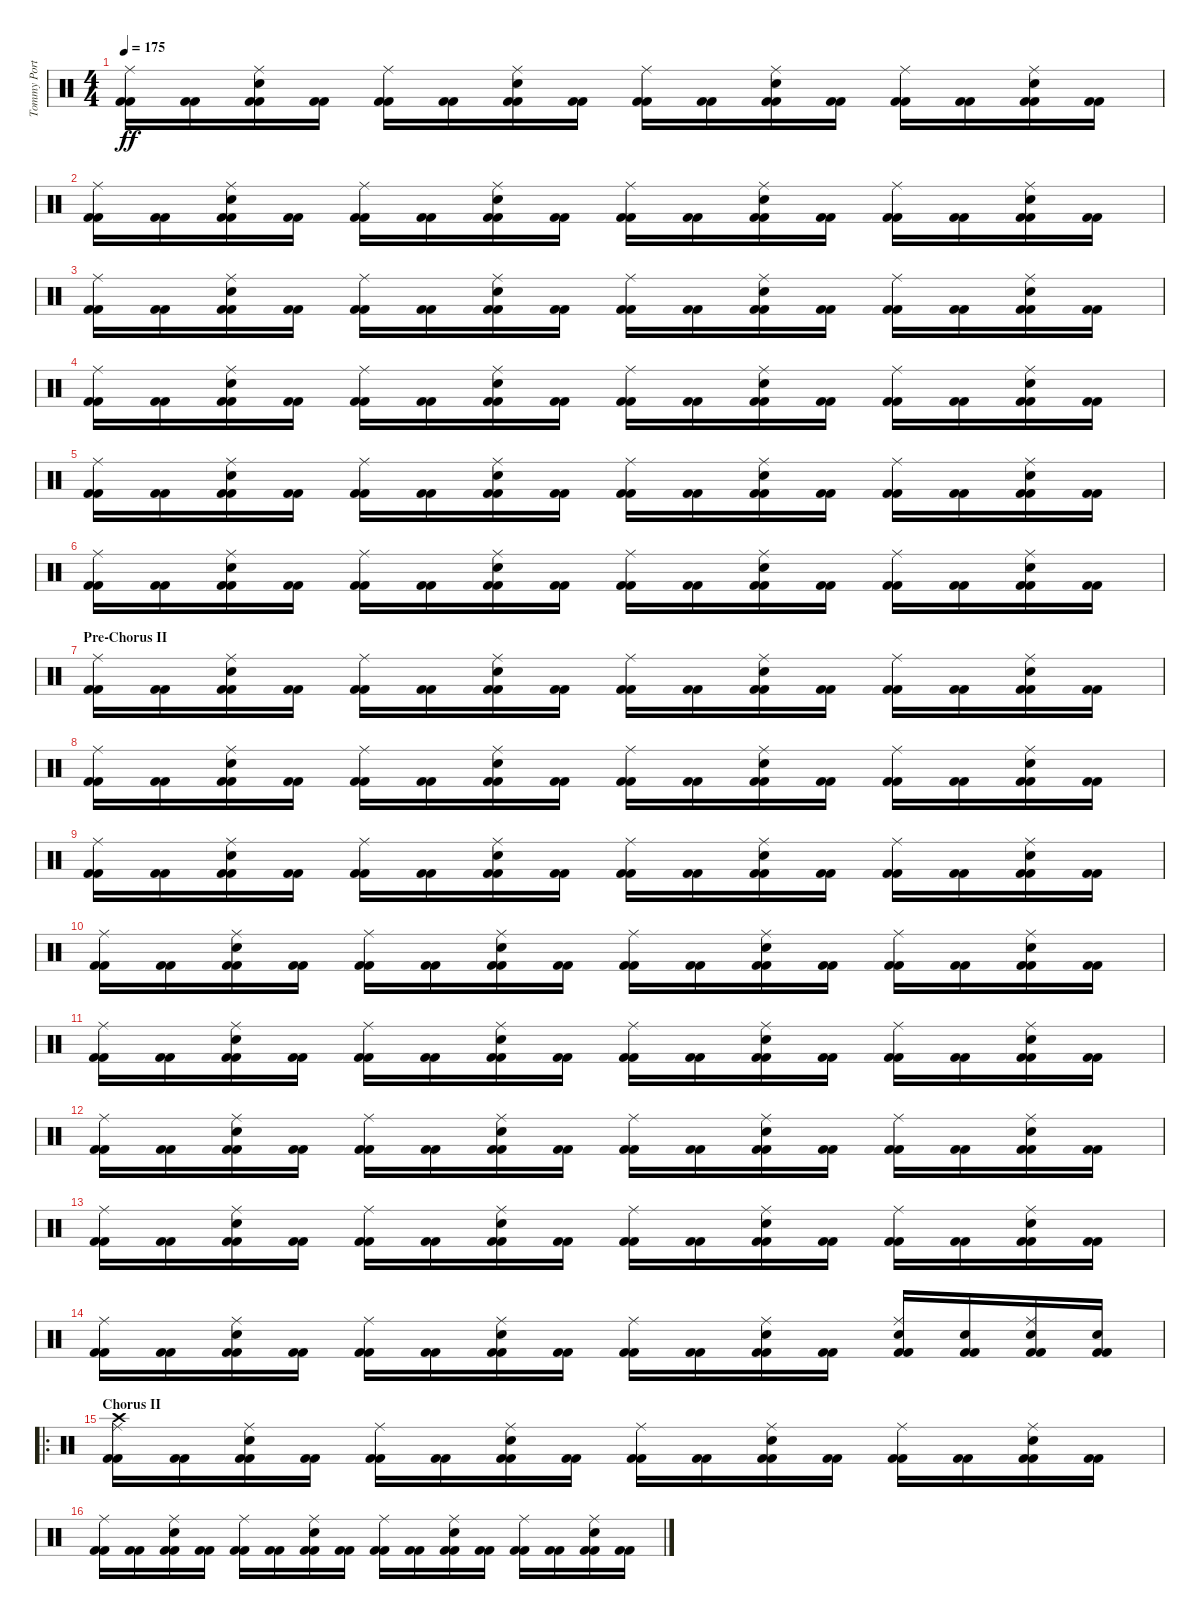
\track ("Tommy Portimo" "Tommy Port") {instrument percussion}
\staff {score}
\articulation defaults
\ts (4 4)
\tempo 175
\clef neutral
\ks c
("Kick (hit) 2" "Kick (hit) 2" "Ride (middle)").16{dy ff} ("Kick (hit) 2" "Kick (hit) 2").16 ("Kick (hit) 2" "Kick (hit) 2" "Ride (middle)" "Electric Snare (hit)").16 ("Kick (hit) 2" "Kick (hit) 2").16 ("Kick (hit) 2" "Kick (hit) 2" "Ride (middle)").16 ("Kick (hit) 2" "Kick (hit) 2").16 ("Kick (hit) 2" "Kick (hit) 2" "Ride (middle)" "Electric Snare (hit)").16 ("Kick (hit) 2" "Kick (hit) 2").16 ("Kick (hit) 2" "Kick (hit) 2" "Ride (middle)").16 ("Kick (hit) 2" "Kick (hit) 2").16 ("Kick (hit) 2" "Kick (hit) 2" "Ride (middle)" "Electric Snare (hit)").16 ("Kick (hit) 2" "Kick (hit) 2").16 ("Kick (hit) 2" "Kick (hit) 2" "Ride (middle)").16 ("Kick (hit) 2" "Kick (hit) 2").16 ("Kick (hit) 2" "Kick (hit) 2" "Ride (middle)" "Electric Snare (hit)").16 ("Kick (hit) 2" "Kick (hit) 2").16 |
("Kick (hit) 2" "Kick (hit) 2" "Ride (middle)").16 ("Kick (hit) 2" "Kick (hit) 2").16 ("Kick (hit) 2" "Kick (hit) 2" "Ride (middle)" "Electric Snare (hit)").16 ("Kick (hit) 2" "Kick (hit) 2").16 ("Kick (hit) 2" "Kick (hit) 2" "Ride (middle)").16 ("Kick (hit) 2" "Kick (hit) 2").16 ("Kick (hit) 2" "Kick (hit) 2" "Ride (middle)" "Electric Snare (hit)").16 ("Kick (hit) 2" "Kick (hit) 2").16 ("Kick (hit) 2" "Kick (hit) 2" "Ride (middle)").16 ("Kick (hit) 2" "Kick (hit) 2").16 ("Kick (hit) 2" "Kick (hit) 2" "Ride (middle)" "Electric Snare (hit)").16 ("Kick (hit) 2" "Kick (hit) 2").16 ("Kick (hit) 2" "Kick (hit) 2" "Ride (middle)").16 ("Kick (hit) 2" "Kick (hit) 2").16 ("Kick (hit) 2" "Kick (hit) 2" "Ride (middle)" "Electric Snare (hit)").16 ("Kick (hit) 2" "Kick (hit) 2").16 |
("Kick (hit) 2" "Kick (hit) 2" "Ride (middle)").16 ("Kick (hit) 2" "Kick (hit) 2").16 ("Kick (hit) 2" "Kick (hit) 2" "Ride (middle)" "Electric Snare (hit)").16 ("Kick (hit) 2" "Kick (hit) 2").16 ("Kick (hit) 2" "Kick (hit) 2" "Ride (middle)").16 ("Kick (hit) 2" "Kick (hit) 2").16 ("Kick (hit) 2" "Kick (hit) 2" "Ride (middle)" "Electric Snare (hit)").16 ("Kick (hit) 2" "Kick (hit) 2").16 ("Kick (hit) 2" "Kick (hit) 2" "Ride (middle)").16 ("Kick (hit) 2" "Kick (hit) 2").16 ("Kick (hit) 2" "Kick (hit) 2" "Ride (middle)" "Electric Snare (hit)").16 ("Kick (hit) 2" "Kick (hit) 2").16 ("Kick (hit) 2" "Kick (hit) 2" "Ride (middle)").16 ("Kick (hit) 2" "Kick (hit) 2").16 ("Kick (hit) 2" "Kick (hit) 2" "Ride (middle)" "Electric Snare (hit)").16 ("Kick (hit) 2" "Kick (hit) 2").16 |
("Kick (hit) 2" "Kick (hit) 2" "Ride (middle)").16 ("Kick (hit) 2" "Kick (hit) 2").16 ("Kick (hit) 2" "Kick (hit) 2" "Ride (middle)" "Electric Snare (hit)").16 ("Kick (hit) 2" "Kick (hit) 2").16 ("Kick (hit) 2" "Kick (hit) 2" "Ride (middle)").16 ("Kick (hit) 2" "Kick (hit) 2").16 ("Kick (hit) 2" "Kick (hit) 2" "Ride (middle)" "Electric Snare (hit)").16 ("Kick (hit) 2" "Kick (hit) 2").16 ("Kick (hit) 2" "Kick (hit) 2" "Ride (middle)").16 ("Kick (hit) 2" "Kick (hit) 2").16 ("Kick (hit) 2" "Kick (hit) 2" "Ride (middle)" "Electric Snare (hit)").16 ("Kick (hit) 2" "Kick (hit) 2").16 ("Kick (hit) 2" "Kick (hit) 2" "Ride (middle)").16 ("Kick (hit) 2" "Kick (hit) 2").16 ("Kick (hit) 2" "Kick (hit) 2" "Ride (middle)" "Electric Snare (hit)").16 ("Kick (hit) 2" "Kick (hit) 2").16 |
("Kick (hit) 2" "Kick (hit) 2" "Ride (middle)").16 ("Kick (hit) 2" "Kick (hit) 2").16 ("Kick (hit) 2" "Kick (hit) 2" "Ride (middle)" "Electric Snare (hit)").16 ("Kick (hit) 2" "Kick (hit) 2").16 ("Kick (hit) 2" "Kick (hit) 2" "Ride (middle)").16 ("Kick (hit) 2" "Kick (hit) 2").16 ("Kick (hit) 2" "Kick (hit) 2" "Ride (middle)" "Electric Snare (hit)").16 ("Kick (hit) 2" "Kick (hit) 2").16 ("Kick (hit) 2" "Kick (hit) 2" "Ride (middle)").16 ("Kick (hit) 2" "Kick (hit) 2").16 ("Kick (hit) 2" "Kick (hit) 2" "Ride (middle)" "Electric Snare (hit)").16 ("Kick (hit) 2" "Kick (hit) 2").16 ("Kick (hit) 2" "Kick (hit) 2" "Ride (middle)").16 ("Kick (hit) 2" "Kick (hit) 2").16 ("Kick (hit) 2" "Kick (hit) 2" "Ride (middle)" "Electric Snare (hit)").16 ("Kick (hit) 2" "Kick (hit) 2").16 |
("Kick (hit) 2" "Kick (hit) 2" "Ride (middle)").16 ("Kick (hit) 2" "Kick (hit) 2").16 ("Kick (hit) 2" "Kick (hit) 2" "Ride (middle)" "Electric Snare (hit)").16 ("Kick (hit) 2" "Kick (hit) 2").16 ("Kick (hit) 2" "Kick (hit) 2" "Ride (middle)").16 ("Kick (hit) 2" "Kick (hit) 2").16 ("Kick (hit) 2" "Kick (hit) 2" "Ride (middle)" "Electric Snare (hit)").16 ("Kick (hit) 2" "Kick (hit) 2").16 ("Kick (hit) 2" "Kick (hit) 2" "Ride (middle)").16 ("Kick (hit) 2" "Kick (hit) 2").16 ("Kick (hit) 2" "Kick (hit) 2" "Ride (middle)" "Electric Snare (hit)").16 ("Kick (hit) 2" "Kick (hit) 2").16 ("Kick (hit) 2" "Kick (hit) 2" "Ride (middle)").16 ("Kick (hit) 2" "Kick (hit) 2").16 ("Kick (hit) 2" "Kick (hit) 2" "Ride (middle)" "Electric Snare (hit)").16 ("Kick (hit) 2" "Kick (hit) 2").16 |
\section ("" "Pre-Chorus II")
("Kick (hit) 2" "Kick (hit) 2" "Ride (middle)").16 ("Kick (hit) 2" "Kick (hit) 2").16 ("Kick (hit) 2" "Kick (hit) 2" "Ride (middle)" "Electric Snare (hit)").16 ("Kick (hit) 2" "Kick (hit) 2").16 ("Kick (hit) 2" "Kick (hit) 2" "Ride (middle)").16 ("Kick (hit) 2" "Kick (hit) 2").16 ("Kick (hit) 2" "Kick (hit) 2" "Ride (middle)" "Electric Snare (hit)").16 ("Kick (hit) 2" "Kick (hit) 2").16 ("Kick (hit) 2" "Kick (hit) 2" "Ride (middle)").16 ("Kick (hit) 2" "Kick (hit) 2").16 ("Kick (hit) 2" "Kick (hit) 2" "Ride (middle)" "Electric Snare (hit)").16 ("Kick (hit) 2" "Kick (hit) 2").16 ("Kick (hit) 2" "Kick (hit) 2" "Ride (middle)").16 ("Kick (hit) 2" "Kick (hit) 2").16 ("Kick (hit) 2" "Kick (hit) 2" "Ride (middle)" "Electric Snare (hit)").16 ("Kick (hit) 2" "Kick (hit) 2").16 |
("Kick (hit) 2" "Kick (hit) 2" "Ride (middle)").16 ("Kick (hit) 2" "Kick (hit) 2").16 ("Kick (hit) 2" "Kick (hit) 2" "Ride (middle)" "Electric Snare (hit)").16 ("Kick (hit) 2" "Kick (hit) 2").16 ("Kick (hit) 2" "Kick (hit) 2" "Ride (middle)").16 ("Kick (hit) 2" "Kick (hit) 2").16 ("Kick (hit) 2" "Kick (hit) 2" "Ride (middle)" "Electric Snare (hit)").16 ("Kick (hit) 2" "Kick (hit) 2").16 ("Kick (hit) 2" "Kick (hit) 2" "Ride (middle)").16 ("Kick (hit) 2" "Kick (hit) 2").16 ("Kick (hit) 2" "Kick (hit) 2" "Ride (middle)" "Electric Snare (hit)").16 ("Kick (hit) 2" "Kick (hit) 2").16 ("Kick (hit) 2" "Kick (hit) 2" "Ride (middle)").16 ("Kick (hit) 2" "Kick (hit) 2").16 ("Kick (hit) 2" "Kick (hit) 2" "Ride (middle)" "Electric Snare (hit)").16 ("Kick (hit) 2" "Kick (hit) 2").16 |
("Kick (hit) 2" "Kick (hit) 2" "Ride (middle)").16 ("Kick (hit) 2" "Kick (hit) 2").16 ("Kick (hit) 2" "Kick (hit) 2" "Ride (middle)" "Electric Snare (hit)").16 ("Kick (hit) 2" "Kick (hit) 2").16 ("Kick (hit) 2" "Kick (hit) 2" "Ride (middle)").16 ("Kick (hit) 2" "Kick (hit) 2").16 ("Kick (hit) 2" "Kick (hit) 2" "Ride (middle)" "Electric Snare (hit)").16 ("Kick (hit) 2" "Kick (hit) 2").16 ("Kick (hit) 2" "Kick (hit) 2" "Ride (middle)").16 ("Kick (hit) 2" "Kick (hit) 2").16 ("Kick (hit) 2" "Kick (hit) 2" "Ride (middle)" "Electric Snare (hit)").16 ("Kick (hit) 2" "Kick (hit) 2").16 ("Kick (hit) 2" "Kick (hit) 2" "Ride (middle)").16 ("Kick (hit) 2" "Kick (hit) 2").16 ("Kick (hit) 2" "Kick (hit) 2" "Ride (middle)" "Electric Snare (hit)").16 ("Kick (hit) 2" "Kick (hit) 2").16 |
("Kick (hit) 2" "Kick (hit) 2" "Ride (middle)").16 ("Kick (hit) 2" "Kick (hit) 2").16 ("Kick (hit) 2" "Kick (hit) 2" "Ride (middle)" "Electric Snare (hit)").16 ("Kick (hit) 2" "Kick (hit) 2").16 ("Kick (hit) 2" "Kick (hit) 2" "Ride (middle)").16 ("Kick (hit) 2" "Kick (hit) 2").16 ("Kick (hit) 2" "Kick (hit) 2" "Ride (middle)" "Electric Snare (hit)").16 ("Kick (hit) 2" "Kick (hit) 2").16 ("Kick (hit) 2" "Kick (hit) 2" "Ride (middle)").16 ("Kick (hit) 2" "Kick (hit) 2").16 ("Kick (hit) 2" "Kick (hit) 2" "Ride (middle)" "Electric Snare (hit)").16 ("Kick (hit) 2" "Kick (hit) 2").16 ("Kick (hit) 2" "Kick (hit) 2" "Ride (middle)").16 ("Kick (hit) 2" "Kick (hit) 2").16 ("Kick (hit) 2" "Kick (hit) 2" "Ride (middle)" "Electric Snare (hit)").16 ("Kick (hit) 2" "Kick (hit) 2").16 |
("Kick (hit) 2" "Kick (hit) 2" "Ride (middle)").16 ("Kick (hit) 2" "Kick (hit) 2").16 ("Kick (hit) 2" "Kick (hit) 2" "Ride (middle)" "Electric Snare (hit)").16 ("Kick (hit) 2" "Kick (hit) 2").16 ("Kick (hit) 2" "Kick (hit) 2" "Ride (middle)").16 ("Kick (hit) 2" "Kick (hit) 2").16 ("Kick (hit) 2" "Kick (hit) 2" "Ride (middle)" "Electric Snare (hit)").16 ("Kick (hit) 2" "Kick (hit) 2").16 ("Kick (hit) 2" "Kick (hit) 2" "Ride (middle)").16 ("Kick (hit) 2" "Kick (hit) 2").16 ("Kick (hit) 2" "Kick (hit) 2" "Ride (middle)" "Electric Snare (hit)").16 ("Kick (hit) 2" "Kick (hit) 2").16 ("Kick (hit) 2" "Kick (hit) 2" "Ride (middle)").16 ("Kick (hit) 2" "Kick (hit) 2").16 ("Kick (hit) 2" "Kick (hit) 2" "Ride (middle)" "Electric Snare (hit)").16 ("Kick (hit) 2" "Kick (hit) 2").16 |
("Kick (hit) 2" "Kick (hit) 2" "Ride (middle)").16 ("Kick (hit) 2" "Kick (hit) 2").16 ("Kick (hit) 2" "Kick (hit) 2" "Ride (middle)" "Electric Snare (hit)").16 ("Kick (hit) 2" "Kick (hit) 2").16 ("Kick (hit) 2" "Kick (hit) 2" "Ride (middle)").16 ("Kick (hit) 2" "Kick (hit) 2").16 ("Kick (hit) 2" "Kick (hit) 2" "Ride (middle)" "Electric Snare (hit)").16 ("Kick (hit) 2" "Kick (hit) 2").16 ("Kick (hit) 2" "Kick (hit) 2" "Ride (middle)").16 ("Kick (hit) 2" "Kick (hit) 2").16 ("Kick (hit) 2" "Kick (hit) 2" "Ride (middle)" "Electric Snare (hit)").16 ("Kick (hit) 2" "Kick (hit) 2").16 ("Kick (hit) 2" "Kick (hit) 2" "Ride (middle)").16 ("Kick (hit) 2" "Kick (hit) 2").16 ("Kick (hit) 2" "Kick (hit) 2" "Ride (middle)" "Electric Snare (hit)").16 ("Kick (hit) 2" "Kick (hit) 2").16 |
("Kick (hit) 2" "Kick (hit) 2" "Ride (middle)").16 ("Kick (hit) 2" "Kick (hit) 2").16 ("Kick (hit) 2" "Kick (hit) 2" "Ride (middle)" "Electric Snare (hit)").16 ("Kick (hit) 2" "Kick (hit) 2").16 ("Kick (hit) 2" "Kick (hit) 2" "Ride (middle)").16 ("Kick (hit) 2" "Kick (hit) 2").16 ("Kick (hit) 2" "Kick (hit) 2" "Ride (middle)" "Electric Snare (hit)").16 ("Kick (hit) 2" "Kick (hit) 2").16 ("Kick (hit) 2" "Kick (hit) 2" "Ride (middle)").16 ("Kick (hit) 2" "Kick (hit) 2").16 ("Kick (hit) 2" "Kick (hit) 2" "Ride (middle)" "Electric Snare (hit)").16 ("Kick (hit) 2" "Kick (hit) 2").16 ("Kick (hit) 2" "Kick (hit) 2" "Ride (middle)").16 ("Kick (hit) 2" "Kick (hit) 2").16 ("Kick (hit) 2" "Kick (hit) 2" "Ride (middle)" "Electric Snare (hit)").16 ("Kick (hit) 2" "Kick (hit) 2").16 |
("Kick (hit) 2" "Kick (hit) 2" "Ride (middle)").16 ("Kick (hit) 2" "Kick (hit) 2").16 ("Kick (hit) 2" "Kick (hit) 2" "Ride (middle)" "Electric Snare (hit)").16 ("Kick (hit) 2" "Kick (hit) 2").16 ("Kick (hit) 2" "Kick (hit) 2" "Ride (middle)").16 ("Kick (hit) 2" "Kick (hit) 2").16 ("Kick (hit) 2" "Kick (hit) 2" "Ride (middle)" "Electric Snare (hit)").16 ("Kick (hit) 2" "Kick (hit) 2").16 ("Kick (hit) 2" "Kick (hit) 2" "Ride (middle)").16 ("Kick (hit) 2" "Kick (hit) 2").16 ("Kick (hit) 2" "Kick (hit) 2" "Ride (middle)" "Electric Snare (hit)").16 ("Kick (hit) 2" "Kick (hit) 2").16 ("Kick (hit) 2" "Kick (hit) 2" "Ride (middle)" "Electric Snare (hit)").16 ("Kick (hit) 2" "Kick (hit) 2" "Electric Snare (hit)").16 ("Kick (hit) 2" "Kick (hit) 2" "Ride (middle)" "Electric Snare (hit)").16 ("Kick (hit) 2" "Kick (hit) 2" "Electric Snare (hit)").16 |
\ro
\section ("" "Chorus II")
("Kick (hit) 2" "Kick (hit) 2" "Ride (middle)" "Crash high (hit)").16 ("Kick (hit) 2" "Kick (hit) 2").16 ("Kick (hit) 2" "Kick (hit) 2" "Ride (middle)" "Electric Snare (hit)").16 ("Kick (hit) 2" "Kick (hit) 2").16 ("Kick (hit) 2" "Kick (hit) 2" "Ride (middle)").16 ("Kick (hit) 2" "Kick (hit) 2").16 ("Kick (hit) 2" "Kick (hit) 2" "Ride (middle)" "Electric Snare (hit)").16 ("Kick (hit) 2" "Kick (hit) 2").16 ("Kick (hit) 2" "Kick (hit) 2" "Ride (middle)").16 ("Kick (hit) 2" "Kick (hit) 2").16 ("Kick (hit) 2" "Kick (hit) 2" "Ride (middle)" "Electric Snare (hit)").16 ("Kick (hit) 2" "Kick (hit) 2").16 ("Kick (hit) 2" "Kick (hit) 2" "Ride (middle)").16 ("Kick (hit) 2" "Kick (hit) 2").16 ("Kick (hit) 2" "Kick (hit) 2" "Ride (middle)" "Electric Snare (hit)").16 ("Kick (hit) 2" "Kick (hit) 2").16 |
("Kick (hit) 2" "Kick (hit) 2" "Ride (middle)").16 ("Kick (hit) 2" "Kick (hit) 2").16 ("Kick (hit) 2" "Kick (hit) 2" "Ride (middle)" "Electric Snare (hit)").16 ("Kick (hit) 2" "Kick (hit) 2").16 ("Kick (hit) 2" "Kick (hit) 2" "Ride (middle)").16 ("Kick (hit) 2" "Kick (hit) 2").16 ("Kick (hit) 2" "Kick (hit) 2" "Ride (middle)" "Electric Snare (hit)").16 ("Kick (hit) 2" "Kick (hit) 2").16 ("Kick (hit) 2" "Kick (hit) 2" "Ride (middle)").16 ("Kick (hit) 2" "Kick (hit) 2").16 ("Kick (hit) 2" "Kick (hit) 2" "Ride (middle)" "Electric Snare (hit)").16 ("Kick (hit) 2" "Kick (hit) 2").16 ("Kick (hit) 2" "Kick (hit) 2" "Ride (middle)").16 ("Kick (hit) 2" "Kick (hit) 2").16 ("Kick (hit) 2" "Kick (hit) 2" "Ride (middle)" "Electric Snare (hit)").16 ("Kick (hit) 2" "Kick (hit) 2").16
